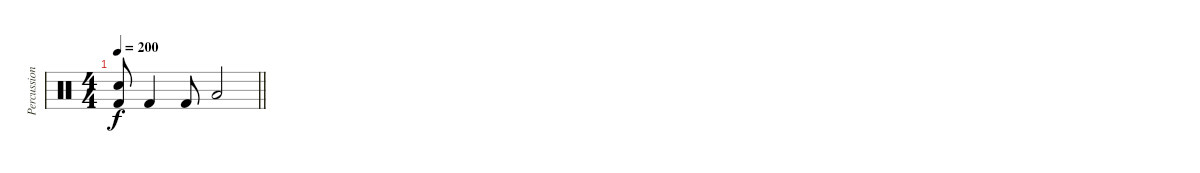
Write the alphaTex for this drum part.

\track ("Percussion" "Percussion") {instrument percussion}
\staff {score}
\articulation defaults
\ts (4 4)
\tempo 200
\clef neutral
\barLineRight lightlight
\ks c
("Snare (hit) 2" "Kick (hit) 2"{t}).8{dy f} "Kick (hit) 2".4 "Kick (hit) 2".8 "Low Floor Tom (hit)".2
